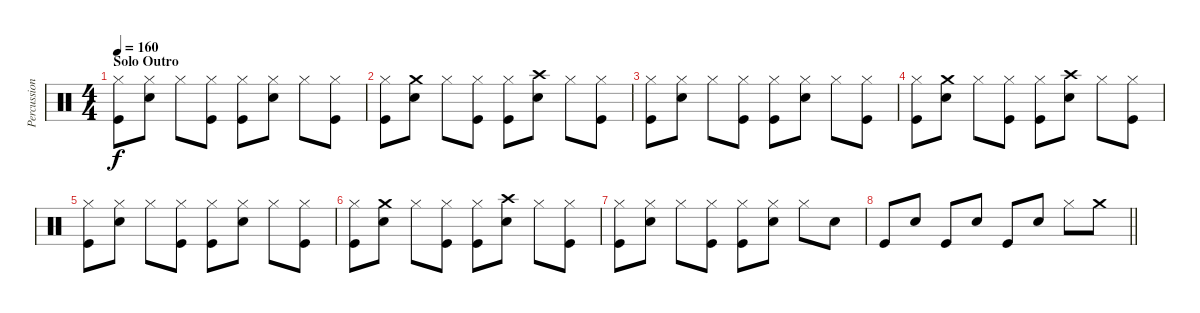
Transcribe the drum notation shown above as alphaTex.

\track ("Percussion" "Percussion") {instrument percussion}
\staff {score}
\articulation defaults
\ts (4 4)
\section ("" "Solo Outro")
\tempo 160
\clef neutral
\ks c
("Hi-Hat (closed)" "Kick (hit)").8{dy f} ("Hi-Hat (closed)" "Electric Snare (hit)").8 "Hi-Hat (closed)".8 ("Hi-Hat (closed)" "Kick (hit)").8 ("Hi-Hat (closed)" "Kick (hit)").8 ("Hi-Hat (closed)" "Electric Snare (hit)").8 "Hi-Hat (closed)".8 ("Hi-Hat (closed)" "Kick (hit)").8 |
("Hi-Hat (closed)" "Kick (hit)").8 ("Crash medium (hit)" "Electric Snare (hit)").8 "Hi-Hat (closed)".8 ("Hi-Hat (closed)" "Kick (hit)").8 ("Hi-Hat (closed)" "Kick (hit)").8 ("Crash high (hit)" "Electric Snare (hit)").8 "Hi-Hat (closed)".8 ("Hi-Hat (closed)" "Kick (hit)").8 |
("Hi-Hat (closed)" "Kick (hit)").8 ("Hi-Hat (closed)" "Electric Snare (hit)").8 "Hi-Hat (closed)".8 ("Hi-Hat (closed)" "Kick (hit)").8 ("Hi-Hat (closed)" "Kick (hit)").8 ("Hi-Hat (closed)" "Electric Snare (hit)").8 "Hi-Hat (closed)".8 ("Hi-Hat (closed)" "Kick (hit)").8 |
("Hi-Hat (closed)" "Kick (hit)").8 ("Crash medium (hit)" "Electric Snare (hit)").8 "Hi-Hat (closed)".8 ("Hi-Hat (closed)" "Kick (hit)").8 ("Hi-Hat (closed)" "Kick (hit)").8 ("Crash high (hit)" "Electric Snare (hit)").8 "Hi-Hat (closed)".8 ("Hi-Hat (closed)" "Kick (hit)").8 |
("Hi-Hat (closed)" "Kick (hit)").8 ("Hi-Hat (closed)" "Electric Snare (hit)").8 "Hi-Hat (closed)".8 ("Hi-Hat (closed)" "Kick (hit)").8 ("Hi-Hat (closed)" "Kick (hit)").8 ("Hi-Hat (closed)" "Electric Snare (hit)").8 "Hi-Hat (closed)".8 ("Hi-Hat (closed)" "Kick (hit)").8 |
("Hi-Hat (closed)" "Kick (hit)").8 ("Crash medium (hit)" "Electric Snare (hit)").8 "Hi-Hat (closed)".8 ("Hi-Hat (closed)" "Kick (hit)").8 ("Hi-Hat (closed)" "Kick (hit)").8 ("Crash high (hit)" "Electric Snare (hit)").8 "Hi-Hat (closed)".8 ("Hi-Hat (closed)" "Kick (hit)").8 |
("Hi-Hat (closed)" "Kick (hit)").8 ("Hi-Hat (closed)" "Electric Snare (hit)").8 "Hi-Hat (closed)".8 ("Hi-Hat (closed)" "Kick (hit)").8 ("Hi-Hat (closed)" "Kick (hit)").8 ("Hi-Hat (closed)" "Electric Snare (hit)").8 "Hi-Hat (closed)".8 "Electric Snare (hit)".8 |
\barLineRight lightlight "Kick (hit)".8 "Electric Snare (hit)".8 "Kick (hit)".8 "Electric Snare (hit)".8 "Kick (hit)".8 "Electric Snare (hit)".8 "Hi-Hat (closed)".8 "Crash medium (hit)".8
